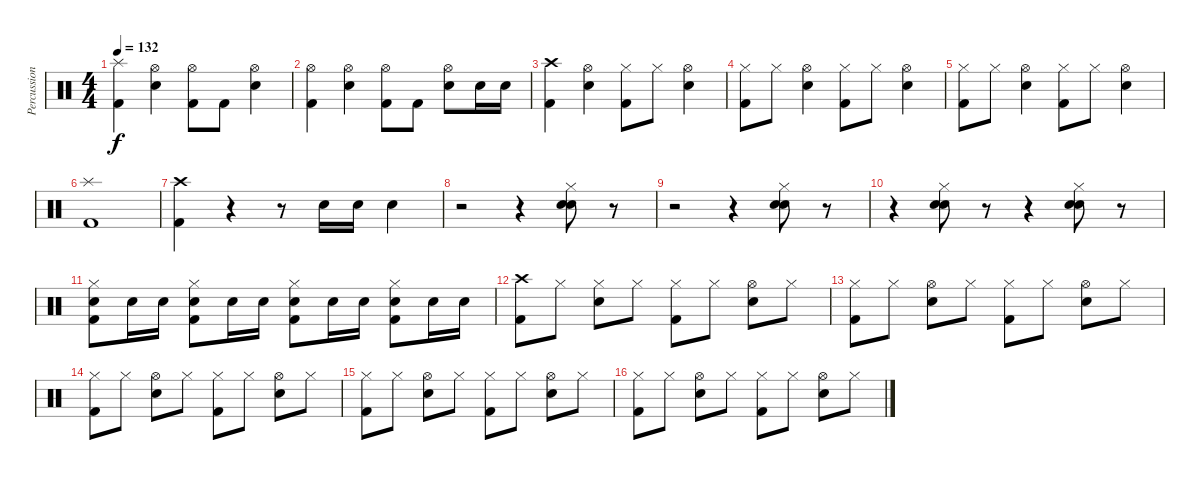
\track ("Percussion" "Percussion") {instrument percussion}
\staff {score}
\articulation defaults
\ts (4 4)
\tempo 132
\clef neutral
\ks c
("Splash (hit)" "Kick (hit) 2").4{dy f} ("Hi-Hat (open)" "Snare (hit) 2").4 ("Hi-Hat (open)" "Kick (hit) 2").8 "Kick (hit) 2".8 ("Hi-Hat (open)" "Snare (hit) 2").4 |
("Hi-Hat (open)" "Kick (hit) 2").4 ("Hi-Hat (open)" "Snare (hit) 2").4 ("Hi-Hat (open)" "Kick (hit) 2").8 "Kick (hit) 2".8 ("Hi-Hat (open)" "Snare (hit) 2").8 "Snare (hit) 2".16 "Snare (hit) 2".16 |
("Crash high (hit)" "Kick (hit) 2").4 ("Hi-Hat (open)" "Snare (hit) 2").4 ("Hi-Hat (closed)" "Kick (hit) 2").8 "Hi-Hat (closed)".8 ("Hi-Hat (open)" "Snare (hit) 2").4 |
("Hi-Hat (closed)" "Kick (hit) 2").8 "Hi-Hat (closed)".8 ("Hi-Hat (open)" "Snare (hit) 2").4 ("Hi-Hat (closed)" "Kick (hit) 2").8 "Hi-Hat (closed)".8 ("Hi-Hat (open)" "Snare (hit) 2").4 |
("Hi-Hat (closed)" "Kick (hit) 2").8 "Hi-Hat (closed)".8 ("Hi-Hat (open)" "Snare (hit) 2").4 ("Hi-Hat (closed)" "Kick (hit) 2").8 "Hi-Hat (closed)".8 ("Hi-Hat (open)" "Snare (hit) 2").4 |
("Splash (hit)" "Kick (hit) 2").1 |
("Crash high (hit)" "Kick (hit) 2").4 r.4 r.8 "Snare (hit) 2".16 "Snare (hit) 2".16 "Snare (hit) 2".4 |
r.2 r.4 ("Hi-Hat (closed)" "Snare (hit) 2" "Snare (hit)").8 r.8 |
r.2 r.4 ("Hi-Hat (closed)" "Snare (hit) 2" "Snare (hit)").8 r.8 |
r.4 ("Hi-Hat (closed)" "Snare (hit) 2" "Snare (hit)").8 r.8 r.4 ("Hi-Hat (closed)" "Snare (hit) 2" "Snare (hit)").8 r.8 |
("Hi-Hat (closed)" "Snare (hit) 2" "Kick (hit) 2").8 "Snare (hit) 2".16 "Snare (hit) 2".16 ("Hi-Hat (closed)" "Snare (hit) 2" "Kick (hit) 2").8 "Snare (hit) 2".16 "Snare (hit) 2".16 ("Hi-Hat (closed)" "Snare (hit) 2" "Kick (hit) 2").8 "Snare (hit) 2".16 "Snare (hit) 2".16 ("Hi-Hat (closed)" "Snare (hit) 2" "Kick (hit) 2").8 "Snare (hit) 2".16 "Snare (hit) 2".16 |
("Crash high (hit)" "Kick (hit) 2").8 "Hi-Hat (closed)".8 ("Hi-Hat (closed)" "Snare (hit) 2").8 "Hi-Hat (closed)".8 ("Hi-Hat (closed)" "Kick (hit) 2").8 "Hi-Hat (closed)".8 ("Hi-Hat (open)" "Snare (hit) 2").8 "Hi-Hat (closed)".8 |
("Hi-Hat (closed)" "Kick (hit) 2").8 "Hi-Hat (closed)".8 ("Hi-Hat (open)" "Snare (hit) 2").8 "Hi-Hat (closed)".8 ("Hi-Hat (closed)" "Kick (hit) 2").8 "Hi-Hat (closed)".8 ("Hi-Hat (open)" "Snare (hit) 2").8 "Hi-Hat (closed)".8 |
("Hi-Hat (closed)" "Kick (hit) 2").8 "Hi-Hat (closed)".8 ("Hi-Hat (open)" "Snare (hit) 2").8 "Hi-Hat (closed)".8 ("Hi-Hat (closed)" "Kick (hit) 2").8 "Hi-Hat (closed)".8 ("Hi-Hat (open)" "Snare (hit) 2").8 "Hi-Hat (closed)".8 |
("Hi-Hat (closed)" "Kick (hit) 2").8 "Hi-Hat (closed)".8 ("Hi-Hat (open)" "Snare (hit) 2").8 "Hi-Hat (closed)".8 ("Hi-Hat (closed)" "Kick (hit) 2").8 "Hi-Hat (closed)".8 ("Hi-Hat (open)" "Snare (hit) 2").8 "Hi-Hat (closed)".8 |
("Hi-Hat (closed)" "Kick (hit) 2").8 "Hi-Hat (closed)".8 ("Hi-Hat (open)" "Snare (hit) 2").8 "Hi-Hat (closed)".8 ("Hi-Hat (closed)" "Kick (hit) 2").8 "Hi-Hat (closed)".8 ("Hi-Hat (open)" "Snare (hit) 2").8 "Hi-Hat (closed)".8
